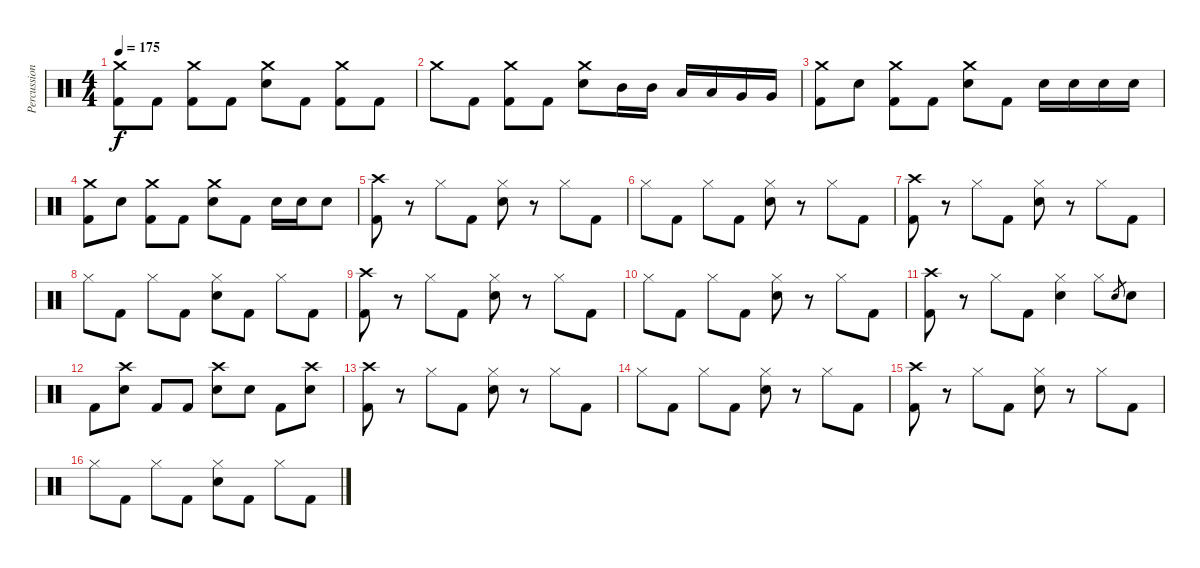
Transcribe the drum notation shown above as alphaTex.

\track ("Percussion" "Percussion") {instrument percussion}
\staff {score}
\articulation defaults
\ts (4 4)
\tempo 175
\clef neutral
\ks c
("Kick (hit) 2" "Crash medium (hit)").8{dy f} "Kick (hit) 2".8 ("Kick (hit) 2" "Crash medium (hit)").8 "Kick (hit) 2".8 ("Electric Snare (hit)" "Crash medium (hit)").8 "Kick (hit) 2".8 ("Kick (hit) 2" "Crash medium (hit)").8 "Kick (hit) 2".8 |
"Crash medium (hit)".8 "Kick (hit) 2".8 ("Kick (hit) 2" "Crash medium (hit)").8 "Kick (hit) 2".8 ("Electric Snare (hit)" "Crash medium (hit)").8 "Mid Tom (hit)".16 "Mid Tom (hit)".16 "Low Tom (hit)".16 "Low Tom (hit)".16 "Very Low Tom (hit)".16 "Very Low Tom (hit)".16 |
("Kick (hit) 2" "Crash medium (hit)").8 "Electric Snare (hit)".8 ("Kick (hit) 2" "Crash medium (hit)").8 "Kick (hit) 2".8 ("Electric Snare (hit)" "Crash medium (hit)").8 "Kick (hit) 2".8 "Electric Snare (hit)".16 "Electric Snare (hit)".16 "Electric Snare (hit)".16 "Electric Snare (hit)".16 |
("Kick (hit) 2" "Crash medium (hit)").8 "Electric Snare (hit)".8 ("Kick (hit) 2" "Crash medium (hit)").8 "Kick (hit) 2".8 ("Electric Snare (hit)" "Crash medium (hit)").8 "Kick (hit) 2".8 "Electric Snare (hit)".16 "Electric Snare (hit)".16 "Electric Snare (hit)".8 |
("Kick (hit) 2" "Crash high (hit)").8 r.8 "Hi-Hat (closed)".8 "Kick (hit) 2".8 ("Electric Snare (hit)" "Hi-Hat (closed)").8 r.8 "Hi-Hat (closed)".8 "Kick (hit) 2".8 |
"Hi-Hat (closed)".8 "Kick (hit) 2".8 "Hi-Hat (closed)".8 "Kick (hit) 2".8 ("Electric Snare (hit)" "Hi-Hat (closed)").8 r.8 "Hi-Hat (closed)".8 "Kick (hit) 2".8 |
("Kick (hit) 2" "Crash high (hit)").8 r.8 "Hi-Hat (closed)".8 "Kick (hit) 2".8 ("Electric Snare (hit)" "Hi-Hat (closed)").8 r.8 "Hi-Hat (closed)".8 "Kick (hit) 2".8 |
"Hi-Hat (closed)".8 "Kick (hit) 2".8 "Hi-Hat (closed)".8 "Kick (hit) 2".8 ("Electric Snare (hit)" "Hi-Hat (closed)").8 "Kick (hit) 2".8 "Hi-Hat (closed)".8 "Kick (hit) 2".8 |
("Kick (hit) 2" "Crash high (hit)").8 r.8 "Hi-Hat (closed)".8 "Kick (hit) 2".8 ("Electric Snare (hit)" "Hi-Hat (closed)").8 r.8 "Hi-Hat (closed)".8 "Kick (hit) 2".8 |
"Hi-Hat (closed)".8 "Kick (hit) 2".8 "Hi-Hat (closed)".8 "Kick (hit) 2".8 ("Electric Snare (hit)" "Hi-Hat (closed)").8 r.8 "Hi-Hat (closed)".8 "Kick (hit) 2".8 |
("Kick (hit) 2" "Crash high (hit)").8 r.8 "Hi-Hat (closed)".8 "Kick (hit) 2".8 ("Electric Snare (hit)" "Hi-Hat (closed)").4 "Hi-Hat (closed)".8 "Electric Snare (hit)".8{gr} "Electric Snare (hit)".8 |
"Kick (hit) 2".8 ("Electric Snare (hit)" "Crash high (hit)").8 "Kick (hit) 2".8 "Kick (hit) 2".8 ("Electric Snare (hit)" "Crash high (hit)").8 "Electric Snare (hit)".8 "Kick (hit) 2".8 ("Electric Snare (hit)" "Crash high (hit)").8 |
("Kick (hit) 2" "Crash high (hit)").8 r.8 "Hi-Hat (closed)".8 "Kick (hit) 2".8 ("Electric Snare (hit)" "Hi-Hat (closed)").8 r.8 "Hi-Hat (closed)".8 "Kick (hit) 2".8 |
"Hi-Hat (closed)".8 "Kick (hit) 2".8 "Hi-Hat (closed)".8 "Kick (hit) 2".8 ("Electric Snare (hit)" "Hi-Hat (closed)").8 r.8 "Hi-Hat (closed)".8 "Kick (hit) 2".8 |
("Kick (hit) 2" "Crash high (hit)").8 r.8 "Hi-Hat (closed)".8 "Kick (hit) 2".8 ("Electric Snare (hit)" "Hi-Hat (closed)").8 r.8 "Hi-Hat (closed)".8 "Kick (hit) 2".8 |
"Hi-Hat (closed)".8 "Kick (hit) 2".8 "Hi-Hat (closed)".8 "Kick (hit) 2".8 ("Electric Snare (hit)" "Hi-Hat (closed)").8 "Kick (hit) 2".8 "Hi-Hat (closed)".8 "Kick (hit) 2".8
